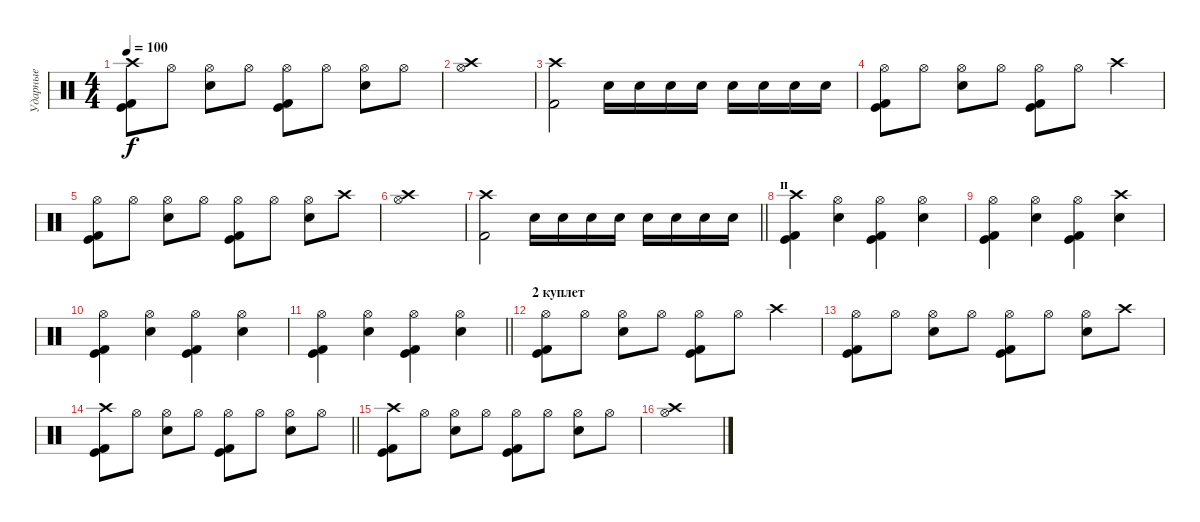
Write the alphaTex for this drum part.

\track ("Ударные" "Ударные") {instrument percussion}
\staff {score}
\articulation defaults
\ts (4 4)
\tempo 100
\clef neutral
\ks c
("Crash high (hit)" "Kick (hit) 2" "Kick (hit)").8{dy f} "Hi-Hat (open)".8 ("Hi-Hat (open)" "Electric Snare (hit)").8 "Hi-Hat (open)".8 ("Hi-Hat (open)" "Kick (hit) 2" "Kick (hit)").8 "Hi-Hat (open)".8 ("Hi-Hat (open)" "Electric Snare (hit)").8 "Hi-Hat (open)".8 |
("Hi-Hat (open)" "Crash high (hit)").1 |
("Crash high (hit)" "Kick (hit) 2").2 "Snare (hit) 2".16 "Snare (hit) 2".16 "Snare (hit) 2".16 "Snare (hit) 2".16 "Snare (hit) 2".16 "Snare (hit) 2".16 "Snare (hit) 2".16 "Snare (hit) 2".16 |
("Hi-Hat (open)" "Kick (hit) 2" "Kick (hit)").8 "Hi-Hat (open)".8 ("Hi-Hat (open)" "Electric Snare (hit)").8 "Hi-Hat (open)".8 ("Hi-Hat (open)" "Kick (hit) 2" "Kick (hit)").8 "Hi-Hat (open)".8 "Crash high (hit)".4 |
("Hi-Hat (open)" "Kick (hit) 2" "Kick (hit)").8 "Hi-Hat (open)".8 ("Hi-Hat (open)" "Electric Snare (hit)").8 "Hi-Hat (open)".8 ("Hi-Hat (open)" "Kick (hit) 2" "Kick (hit)").8 "Hi-Hat (open)".8 ("Hi-Hat (open)" "Electric Snare (hit)").8 "Crash high (hit)".8 |
("Hi-Hat (open)" "Crash high (hit)").1 |
\barLineRight lightlight
("Crash high (hit)" "Kick (hit) 2").2 "Snare (hit) 2".16 "Snare (hit) 2".16 "Snare (hit) 2".16 "Snare (hit) 2".16 "Snare (hit) 2".16 "Snare (hit) 2".16 "Snare (hit) 2".16 "Snare (hit) 2".16 |
\section ("" "п")
("Crash high (hit)" "Kick (hit) 2" "Kick (hit)").4 ("Hi-Hat (open)" "Electric Snare (hit)").4 ("Hi-Hat (open)" "Kick (hit) 2" "Kick (hit)").4 ("Hi-Hat (open)" "Electric Snare (hit)").4 |
("Hi-Hat (open)" "Kick (hit) 2" "Kick (hit)").4 ("Hi-Hat (open)" "Electric Snare (hit)").4 ("Hi-Hat (open)" "Kick (hit) 2" "Kick (hit)").4 ("Crash high (hit)" "Electric Snare (hit)").4 |
("Hi-Hat (open)" "Kick (hit) 2" "Kick (hit)").4 ("Hi-Hat (open)" "Electric Snare (hit)").4 ("Hi-Hat (open)" "Kick (hit) 2" "Kick (hit)").4 ("Hi-Hat (open)" "Electric Snare (hit)").4 |
\barLineRight lightlight
("Hi-Hat (open)" "Kick (hit) 2" "Kick (hit)").4 ("Hi-Hat (open)" "Electric Snare (hit)").4 ("Hi-Hat (open)" "Kick (hit) 2" "Kick (hit)").4 ("Hi-Hat (open)" "Electric Snare (hit)").4 |
\section ("" "2 куплет")
("Hi-Hat (open)" "Kick (hit) 2" "Kick (hit)").8 "Hi-Hat (open)".8 ("Hi-Hat (open)" "Electric Snare (hit)").8 "Hi-Hat (open)".8 ("Hi-Hat (open)" "Kick (hit) 2" "Kick (hit)").8 "Hi-Hat (open)".8 "Crash high (hit)".4 |
("Hi-Hat (open)" "Kick (hit) 2" "Kick (hit)").8 "Hi-Hat (open)".8 ("Hi-Hat (open)" "Electric Snare (hit)").8 "Hi-Hat (open)".8 ("Hi-Hat (open)" "Kick (hit) 2" "Kick (hit)").8 "Hi-Hat (open)".8 ("Hi-Hat (open)" "Electric Snare (hit)").8 "Crash high (hit)".8 |
\barLineRight lightlight
("Crash high (hit)" "Kick (hit) 2" "Kick (hit)").8 "Hi-Hat (open)".8 ("Hi-Hat (open)" "Electric Snare (hit)").8 "Hi-Hat (open)".8 ("Hi-Hat (open)" "Kick (hit) 2" "Kick (hit)").8 "Hi-Hat (open)".8 ("Hi-Hat (open)" "Electric Snare (hit)").8 "Hi-Hat (open)".8 |
("Crash high (hit)" "Kick (hit) 2" "Kick (hit)").8 "Hi-Hat (open)".8 ("Hi-Hat (open)" "Electric Snare (hit)").8 "Hi-Hat (open)".8 ("Hi-Hat (open)" "Kick (hit) 2" "Kick (hit)").8 "Hi-Hat (open)".8 ("Hi-Hat (open)" "Electric Snare (hit)").8 "Hi-Hat (open)".8 |
("Hi-Hat (open)" "Crash high (hit)").1
